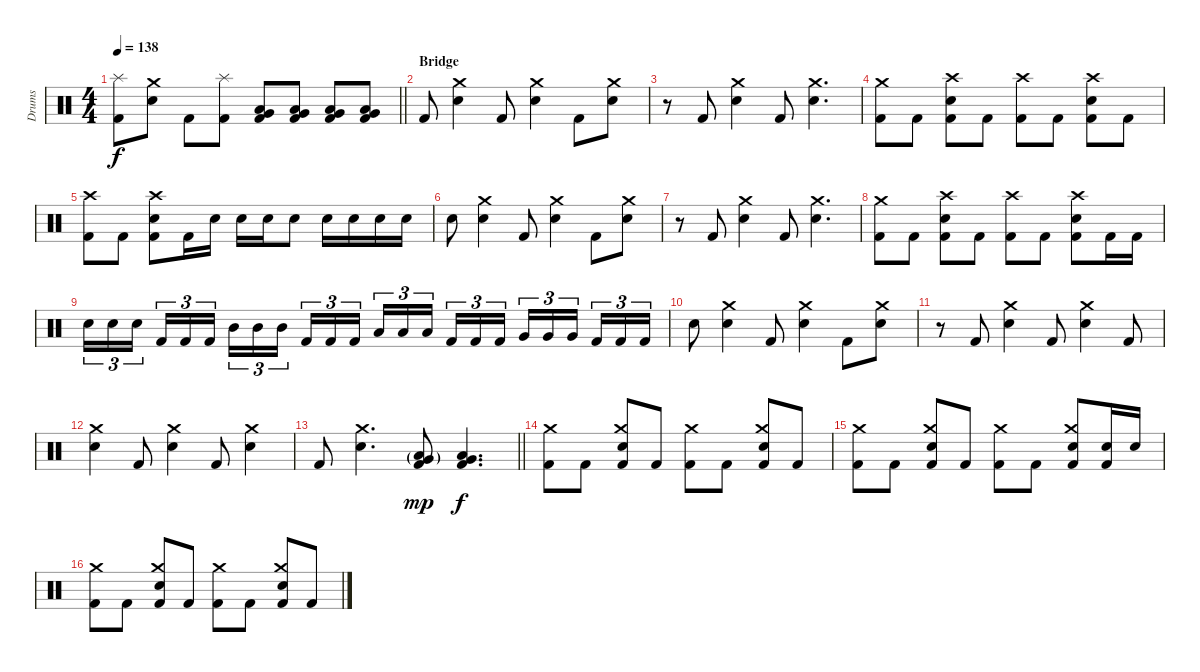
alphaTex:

\track ("Drums" "Drums") {instrument percussion}
\staff {score}
\articulation defaults
\ts (4 4)
\tempo 138
\clef neutral
\barLineRight lightlight
\ks c
("Splash (hit)" "Kick (hit) 2").8{dy f} ("Crash medium (hit)" "Snare (hit) 2").8 "Kick (hit) 2".8 ("Splash (hit)" "Kick (hit) 2").8 ("Low Tom (hit)" "Very Low Tom (hit)" "Kick (hit) 2").8 ("Low Tom (hit)" "Very Low Tom (hit)" "Kick (hit) 2").8 ("Low Tom (hit)" "Very Low Tom (hit)" "Kick (hit) 2").8 ("Low Tom (hit)" "Very Low Tom (hit)" "Kick (hit) 2").8 |
\section ("" "Bridge")
"Kick (hit) 2".8 ("Crash medium (hit)" "Snare (hit) 2").4 "Kick (hit) 2".8 ("Crash medium (hit)" "Snare (hit) 2").4 "Kick (hit) 2".8 ("Crash medium (hit)" "Snare (hit) 2").8 |
r.8 "Kick (hit) 2".8 ("Crash medium (hit)" "Snare (hit) 2").4 "Kick (hit) 2".8 ("Crash medium (hit)" "Snare (hit) 2").4{d} |
("Crash medium (hit)" "Kick (hit) 2").8 "Kick (hit) 2".8 ("Crash high (hit)" "Snare (hit) 2" "Kick (hit) 2").8 "Kick (hit) 2".8 ("Crash high (hit)" "Kick (hit) 2").8 "Kick (hit) 2".8 ("Crash high (hit)" "Snare (hit) 2" "Kick (hit) 2").8 "Kick (hit) 2".8 |
("Crash high (hit)" "Kick (hit) 2").8 "Kick (hit) 2".8 ("Crash high (hit)" "Snare (hit) 2" "Kick (hit) 2").8 "Kick (hit) 2".16 "Snare (hit) 2".16 "Snare (hit) 2".16 "Snare (hit) 2".16 "Snare (hit) 2".8 "Snare (hit) 2".16 "Snare (hit) 2".16 "Snare (hit) 2".16 "Snare (hit) 2".16 |
"Snare (hit) 2".8 ("Crash medium (hit)" "Snare (hit) 2").4 "Kick (hit) 2".8 ("Crash medium (hit)" "Snare (hit) 2").4 "Kick (hit) 2".8 ("Crash medium (hit)" "Snare (hit) 2").8 |
r.8 "Kick (hit) 2".8 ("Crash medium (hit)" "Snare (hit) 2").4 "Kick (hit) 2".8 ("Crash medium (hit)" "Snare (hit) 2").4{d} |
("Crash medium (hit)" "Kick (hit) 2").8 "Kick (hit) 2".8 ("Crash high (hit)" "Snare (hit) 2" "Kick (hit) 2").8 "Kick (hit) 2".8 ("Crash high (hit)" "Kick (hit) 2").8 "Kick (hit) 2".8 ("Crash high (hit)" "Snare (hit) 2" "Kick (hit) 2").8 "Kick (hit) 2".16 "Kick (hit) 2".16 |
"Snare (hit) 2".16{tu (3 2)} "Snare (hit) 2".16{tu (3 2)} "Snare (hit) 2".16{tu (3 2) beam splitsecondary} "Kick (hit) 2".16{tu (3 2)} "Kick (hit) 2".16{tu (3 2)} "Kick (hit) 2".16{tu (3 2)} "Mid Tom (hit)".16{tu (3 2)} "Mid Tom (hit)".16{tu (3 2)} "Mid Tom (hit)".16{tu (3 2) beam splitsecondary} "Kick (hit) 2".16{tu (3 2)} "Kick (hit) 2".16{tu (3 2)} "Kick (hit) 2".16{tu (3 2)} "Low Tom (hit)".16{tu (3 2)} "Low Tom (hit)".16{tu (3 2)} "Low Tom (hit)".16{tu (3 2) beam splitsecondary} "Kick (hit) 2".16{tu (3 2)} "Kick (hit) 2".16{tu (3 2)} "Kick (hit) 2".16{tu (3 2)} "Very Low Tom (hit)".16{tu (3 2)} "Very Low Tom (hit)".16{tu (3 2)} "Very Low Tom (hit)".16{tu (3 2) beam splitsecondary} "Kick (hit) 2".16{tu (3 2)} "Kick (hit) 2".16{tu (3 2)} "Kick (hit) 2".16{tu (3 2)} |
"Snare (hit) 2".8 ("Crash medium (hit)" "Snare (hit) 2").4 "Kick (hit) 2".8 ("Crash medium (hit)" "Snare (hit) 2").4 "Kick (hit) 2".8 ("Crash medium (hit)" "Snare (hit) 2").8 |
r.8 "Kick (hit) 2".8 ("Crash medium (hit)" "Snare (hit) 2").4 "Kick (hit) 2".8 ("Crash medium (hit)" "Snare (hit) 2").4 "Kick (hit) 2".8 |
("Crash medium (hit)" "Snare (hit) 2").4 "Kick (hit) 2".8 ("Crash medium (hit)" "Snare (hit) 2").4 "Kick (hit) 2".8 ("Crash medium (hit)" "Snare (hit) 2").4 |
\barLineRight lightlight "Kick (hit) 2".8
("Crash medium (hit)" "Snare (hit) 2").4{d} ("Low Tom (hit)"{g} "Very Low Tom (hit)"{g} "Kick (hit) 2").8{dy mp} ("Low Tom (hit)" "Very Low Tom (hit)" "Kick (hit) 2").4{d dy f} |
\section ("" "")
("Crash medium (hit)" "Kick (hit) 2").8 "Kick (hit) 2".8 ("Crash medium (hit)" "Snare (hit) 2" "Kick (hit) 2").8 "Kick (hit) 2".8 ("Crash medium (hit)" "Kick (hit) 2").8 "Kick (hit) 2".8 ("Crash medium (hit)" "Snare (hit) 2" "Kick (hit) 2").8 "Kick (hit) 2".8 |
("Crash medium (hit)" "Kick (hit) 2").8 "Kick (hit) 2".8 ("Crash medium (hit)" "Snare (hit) 2" "Kick (hit) 2").8 "Kick (hit) 2".8 ("Crash medium (hit)" "Kick (hit) 2").8 "Kick (hit) 2".8 ("Crash medium (hit)" "Snare (hit) 2" "Kick (hit) 2").8 ("Snare (hit) 2" "Kick (hit) 2").16 "Snare (hit) 2".16 |
("Crash medium (hit)" "Kick (hit) 2").8 "Kick (hit) 2".8 ("Crash medium (hit)" "Snare (hit) 2" "Kick (hit) 2").8 "Kick (hit) 2".8 ("Crash medium (hit)" "Kick (hit) 2").8 "Kick (hit) 2".8 ("Crash medium (hit)" "Snare (hit) 2" "Kick (hit) 2").8 "Kick (hit) 2".8
